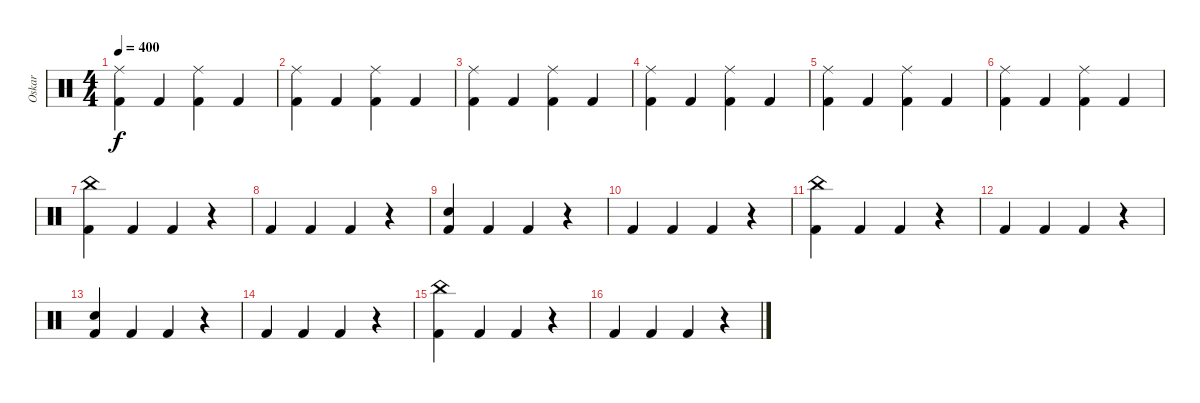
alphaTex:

\track ("Oskar" "Oskar") {instrument percussion}
\staff {score}
\articulation defaults
\ts (4 4)
\tempo 400
\clef neutral
\ks c
("Ride (middle)" "Kick (hit) 2").4{dy f} "Kick (hit) 2".4 ("Ride (middle)" "Kick (hit) 2").4 "Kick (hit) 2".4 |
("Ride (middle)" "Kick (hit) 2").4 "Kick (hit) 2".4 ("Ride (middle)" "Kick (hit) 2").4 "Kick (hit) 2".4 |
("Ride (middle)" "Kick (hit) 2").4 "Kick (hit) 2".4 ("Ride (middle)" "Kick (hit) 2").4 "Kick (hit) 2".4 |
("Ride (middle)" "Kick (hit) 2").4 "Kick (hit) 2".4 ("Ride (middle)" "Kick (hit) 2").4 "Kick (hit) 2".4 |
("Ride (middle)" "Kick (hit) 2").4 "Kick (hit) 2".4 ("Ride (middle)" "Kick (hit) 2").4 "Kick (hit) 2".4 |
("Ride (middle)" "Kick (hit) 2").4 "Kick (hit) 2".4 ("Ride (middle)" "Kick (hit) 2").4 "Kick (hit) 2".4 |
("China (hit)" "Kick (hit) 2").4 "Kick (hit) 2".4 "Kick (hit) 2".4 r.4 |
"Kick (hit) 2".4 "Kick (hit) 2".4 "Kick (hit) 2".4 r.4 |
("Electric Snare (hit)" "Kick (hit) 2").4 "Kick (hit) 2".4 "Kick (hit) 2".4 r.4 |
"Kick (hit) 2".4 "Kick (hit) 2".4 "Kick (hit) 2".4 r.4 |
("China (hit)" "Kick (hit) 2").4 "Kick (hit) 2".4 "Kick (hit) 2".4 r.4 |
"Kick (hit) 2".4 "Kick (hit) 2".4 "Kick (hit) 2".4 r.4 |
("Electric Snare (hit)" "Kick (hit) 2").4 "Kick (hit) 2".4 "Kick (hit) 2".4 r.4 |
"Kick (hit) 2".4 "Kick (hit) 2".4 "Kick (hit) 2".4 r.4 |
("China (hit)" "Kick (hit) 2").4 "Kick (hit) 2".4 "Kick (hit) 2".4 r.4 |
"Kick (hit) 2".4 "Kick (hit) 2".4 "Kick (hit) 2".4 r.4
